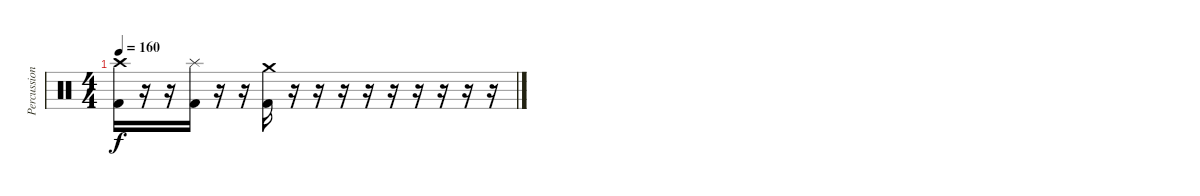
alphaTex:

\track ("Percussion" "Percussion") {instrument percussion}
\staff {score}
\articulation defaults
\ts (4 4)
\tempo 160
\clef neutral
\ks c
("Crash high (hit)" "Kick (hit) 2").16{dy f} r.16 r.16 ("Splash (hit)" "Kick (hit) 2").16 r.16 r.16 ("Crash medium (hit)" "Kick (hit) 2").16 r.16 r.16 r.16{volume 0} r.16 r.16 r.16 r.16 r.16 r.16
